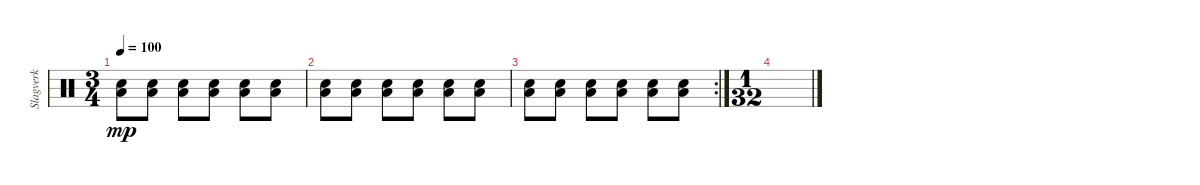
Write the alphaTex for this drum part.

\track ("Slagverk" "Slagverk") {instrument percussion}
\staff {score}
\articulation defaults
\ts (3 4)
\tempo 100
\clef neutral
\ks c
("Snare (hit) 2" "Low Floor Tom (hit)").8{dy mp volume 9} ("Snare (hit) 2" "Low Floor Tom (hit)").8 ("Snare (hit) 2" "Low Floor Tom (hit)").8 ("Snare (hit) 2" "Low Floor Tom (hit)").8 ("Snare (hit) 2" "Low Floor Tom (hit)").8 ("Snare (hit) 2" "Low Floor Tom (hit)").8 |
("Snare (hit) 2" "Low Floor Tom (hit)").8{volume 7} ("Snare (hit) 2" "Low Floor Tom (hit)").8 ("Snare (hit) 2" "Low Floor Tom (hit)").8 ("Snare (hit) 2" "Low Floor Tom (hit)").8 ("Snare (hit) 2" "Low Floor Tom (hit)").8 ("Snare (hit) 2" "Low Floor Tom (hit)").8 |
\rc 2
("Snare (hit) 2" "Low Floor Tom (hit)").8{volume 0} ("Snare (hit) 2" "Low Floor Tom (hit)").8 ("Snare (hit) 2" "Low Floor Tom (hit)").8 ("Snare (hit) 2" "Low Floor Tom (hit)").8 ("Snare (hit) 2" "Low Floor Tom (hit)").8 ("Snare (hit) 2" "Low Floor Tom (hit)").8 |
\ts (1 32)
